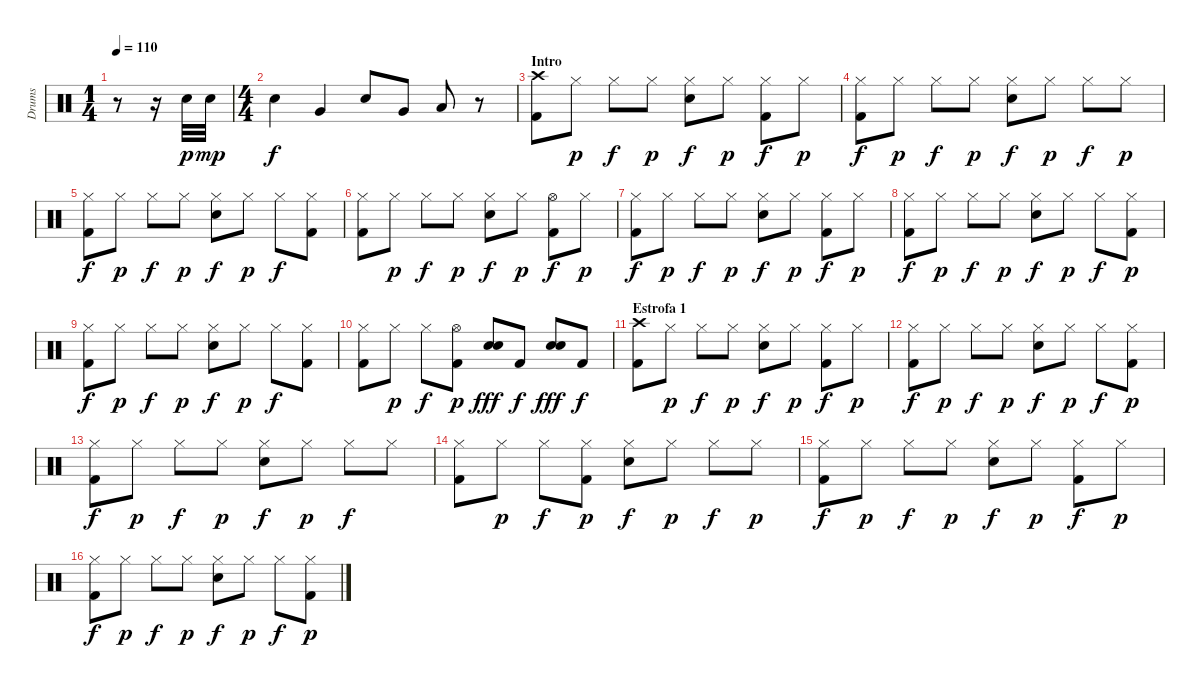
\track ("Drums" "Drums") {instrument percussion}
\staff {score}
\articulation defaults
\ts (1 4)
\tempo 110
\clef neutral
\ks c
r.8{dy p} r.16 "Snare (hit) 2".32 "Snare (hit) 2".32{dy mp} |
\ts (4 4)
"Snare (hit) 2".4{dy f} "Very Low Tom (hit)".4 "Snare (hit) 2".8 "Very Low Tom (hit)".8 "Low Floor Tom (hit)".8 r.8 |
\section ("" "Intro")
("Crash high (hit)" "Kick (hit) 2").8 "Hi-Hat (closed)".8{dy p} "Hi-Hat (closed)".8{dy f} "Hi-Hat (closed)".8{dy p} ("Hi-Hat (closed)" "Snare (hit) 2").8{dy f} "Hi-Hat (closed)".8{dy p} ("Hi-Hat (closed)" "Kick (hit) 2").8{dy f} "Hi-Hat (closed)".8{dy p} |
("Hi-Hat (closed)" "Kick (hit) 2").8{dy f} "Hi-Hat (closed)".8{dy p} "Hi-Hat (closed)".8{dy f} "Hi-Hat (closed)".8{dy p} ("Hi-Hat (closed)" "Snare (hit) 2").8{dy f} "Hi-Hat (closed)".8{dy p} "Hi-Hat (closed)".8{dy f} "Hi-Hat (closed)".8{dy p} |
("Hi-Hat (closed)" "Kick (hit) 2").8{dy f} "Hi-Hat (closed)".8{dy p} "Hi-Hat (closed)".8{dy f} "Hi-Hat (closed)".8{dy p} ("Hi-Hat (closed)" "Snare (hit) 2").8{dy f} "Hi-Hat (closed)".8{dy p} "Hi-Hat (closed)".8{dy f} ("Hi-Hat (closed)" "Kick (hit) 2").8 |
("Hi-Hat (closed)" "Kick (hit) 2").8 "Hi-Hat (closed)".8{dy p} "Hi-Hat (closed)".8{dy f} "Hi-Hat (closed)".8{dy p} ("Hi-Hat (closed)" "Snare (hit) 2").8{dy f} "Hi-Hat (closed)".8{dy p} ("Hi-Hat (open)" "Kick (hit) 2").8{dy f} "Hi-Hat (closed)".8{dy p} |
("Hi-Hat (closed)" "Kick (hit) 2").8{dy f} "Hi-Hat (closed)".8{dy p} "Hi-Hat (closed)".8{dy f} "Hi-Hat (closed)".8{dy p} ("Hi-Hat (closed)" "Snare (hit) 2").8{dy f} "Hi-Hat (closed)".8{dy p} ("Hi-Hat (closed)" "Kick (hit) 2").8{dy f} "Hi-Hat (closed)".8{dy p} |
("Hi-Hat (closed)" "Kick (hit) 2").8{dy f} "Hi-Hat (closed)".8{dy p} "Hi-Hat (closed)".8{dy f} "Hi-Hat (closed)".8{dy p} ("Hi-Hat (closed)" "Snare (hit) 2").8{dy f} "Hi-Hat (closed)".8{dy p} "Hi-Hat (closed)".8{dy f} ("Hi-Hat (closed)" "Kick (hit) 2").8{dy p} |
("Hi-Hat (closed)" "Kick (hit) 2").8{dy f} "Hi-Hat (closed)".8{dy p} "Hi-Hat (closed)".8{dy f} "Hi-Hat (closed)".8{dy p} ("Hi-Hat (closed)" "Snare (hit) 2").8{dy f} "Hi-Hat (closed)".8{dy p} "Hi-Hat (closed)".8{dy f} ("Hi-Hat (closed)" "Kick (hit) 2").8 |
("Hi-Hat (closed)" "Kick (hit) 2").8 "Hi-Hat (closed)".8{dy p} "Hi-Hat (closed)".8{dy f} ("Hi-Hat (open)" "Kick (hit) 2").8{dy p} ("Snare (hit) 2" "Snare (hit) 2").8{bd 60 dy fff} "Kick (hit) 2".8{dy f} ("Snare (hit) 2" "Snare (hit) 2").8{bd 60 dy fff} "Kick (hit) 2".8{dy f} |
\section ("" "Estrofa 1")
("Crash high (hit)" "Kick (hit) 2").8 "Hi-Hat (closed)".8{dy p} "Hi-Hat (closed)".8{dy f} "Hi-Hat (closed)".8{dy p} ("Hi-Hat (closed)" "Snare (hit) 2").8{dy f} "Hi-Hat (closed)".8{dy p} ("Hi-Hat (closed)" "Kick (hit) 2").8{dy f} "Hi-Hat (closed)".8{dy p} |
("Hi-Hat (closed)" "Kick (hit) 2").8{dy f} "Hi-Hat (closed)".8{dy p} "Hi-Hat (closed)".8{dy f} "Hi-Hat (closed)".8{dy p} ("Hi-Hat (closed)" "Snare (hit) 2").8{dy f} "Hi-Hat (closed)".8{dy p} "Hi-Hat (closed)".8{dy f} ("Hi-Hat (closed)" "Kick (hit) 2").8{dy p} |
("Hi-Hat (closed)" "Kick (hit) 2").8{dy f} "Hi-Hat (closed)".8{dy p} "Hi-Hat (closed)".8{dy f} "Hi-Hat (closed)".8{dy p} ("Hi-Hat (closed)" "Snare (hit) 2").8{dy f} "Hi-Hat (closed)".8{dy p} "Hi-Hat (closed)".8{dy f} "Hi-Hat (closed)".8 |
("Hi-Hat (closed)" "Kick (hit) 2").8 "Hi-Hat (closed)".8{dy p} "Hi-Hat (closed)".8{dy f} ("Hi-Hat (closed)" "Kick (hit) 2").8{dy p} ("Hi-Hat (closed)" "Snare (hit) 2").8{dy f} "Hi-Hat (closed)".8{dy p} "Hi-Hat (closed)".8{dy f} "Hi-Hat (closed)".8{dy p} |
("Hi-Hat (closed)" "Kick (hit) 2").8{dy f} "Hi-Hat (closed)".8{dy p} "Hi-Hat (closed)".8{dy f} "Hi-Hat (closed)".8{dy p} ("Hi-Hat (closed)" "Snare (hit) 2").8{dy f} "Hi-Hat (closed)".8{dy p} ("Hi-Hat (closed)" "Kick (hit) 2").8{dy f} "Hi-Hat (closed)".8{dy p} |
("Hi-Hat (closed)" "Kick (hit) 2").8{dy f} "Hi-Hat (closed)".8{dy p} "Hi-Hat (closed)".8{dy f} "Hi-Hat (closed)".8{dy p} ("Hi-Hat (closed)" "Snare (hit) 2").8{dy f} "Hi-Hat (closed)".8{dy p} "Hi-Hat (closed)".8{dy f} ("Hi-Hat (closed)" "Kick (hit) 2").8{dy p}
